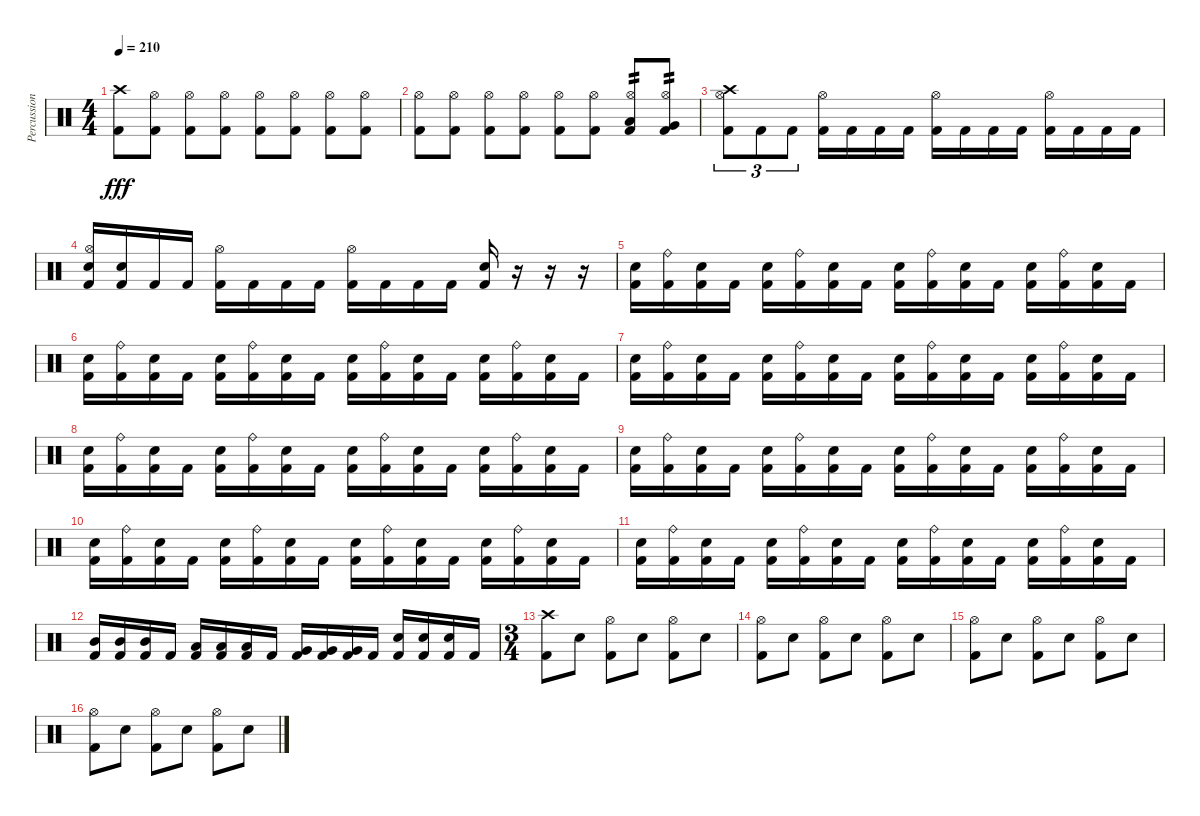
\track ("Percussion" "Percussion") {instrument percussion}
\staff {score}
\articulation defaults
\ts (4 4)
\tempo 210
\clef neutral
\ks c
("Crash high (hit)" "Kick (hit) 2").8{dy fff} ("Hi-Hat (open)" "Kick (hit) 2").8 ("Hi-Hat (open)" "Kick (hit) 2").8 ("Hi-Hat (open)" "Kick (hit) 2").8 ("Hi-Hat (open)" "Kick (hit) 2").8 ("Hi-Hat (open)" "Kick (hit) 2").8 ("Hi-Hat (open)" "Kick (hit) 2").8 ("Hi-Hat (open)" "Kick (hit) 2").8 |
("Hi-Hat (open)" "Kick (hit) 2").8 ("Hi-Hat (open)" "Kick (hit) 2").8 ("Hi-Hat (open)" "Kick (hit) 2").8 ("Hi-Hat (open)" "Kick (hit) 2").8 ("Hi-Hat (open)" "Kick (hit) 2").8 ("Hi-Hat (open)" "Kick (hit) 2").8 ("Hi-Hat (open)" "Low Tom (hit)" "Kick (hit) 2").8{tp 2} ("Hi-Hat (open)" "Very Low Tom (hit)" "Kick (hit) 2").8{tp 2} |
("Hi-Hat (open)" "Crash high (hit)" "Kick (hit) 2").8{tu (3 2)} "Kick (hit) 2".8{tu (3 2)} "Kick (hit) 2".8{tu (3 2)} ("Hi-Hat (open)" "Kick (hit) 2").16 "Kick (hit) 2".16 "Kick (hit) 2".16 "Kick (hit) 2".16 ("Hi-Hat (open)" "Kick (hit) 2").16 "Kick (hit) 2".16 "Kick (hit) 2".16 "Kick (hit) 2".16 ("Hi-Hat (open)" "Kick (hit) 2").16 "Kick (hit) 2".16 "Kick (hit) 2".16 "Kick (hit) 2".16 |
("Hi-Hat (open)" "Electric Snare (hit)" "Kick (hit) 2").16 ("Electric Snare (hit)" "Kick (hit) 2").16 "Kick (hit) 2".16 "Kick (hit) 2".16 ("Hi-Hat (open)" "Kick (hit) 2").16 "Kick (hit) 2".16 "Kick (hit) 2".16 "Kick (hit) 2".16 ("Hi-Hat (open)" "Kick (hit) 2").16 "Kick (hit) 2".16 "Kick (hit) 2".16 "Kick (hit) 2".16 ("Electric Snare (hit)" "Kick (hit) 2").16 r.16 r.16 r.16 |
("Electric Snare (hit)" "Kick (hit) 2").16 ("Ride (bell)" "Kick (hit) 2").16 ("Electric Snare (hit)" "Kick (hit) 2").16 "Kick (hit) 2".16 ("Electric Snare (hit)" "Kick (hit) 2").16 ("Ride (bell)" "Kick (hit) 2").16 ("Electric Snare (hit)" "Kick (hit) 2").16 "Kick (hit) 2".16 ("Electric Snare (hit)" "Kick (hit) 2").16 ("Ride (bell)" "Kick (hit) 2").16 ("Electric Snare (hit)" "Kick (hit) 2").16 "Kick (hit) 2".16 ("Electric Snare (hit)" "Kick (hit) 2").16 ("Ride (bell)" "Kick (hit) 2").16 ("Electric Snare (hit)" "Kick (hit) 2").16 "Kick (hit) 2".16 |
("Electric Snare (hit)" "Kick (hit) 2").16 ("Ride (bell)" "Kick (hit) 2").16 ("Electric Snare (hit)" "Kick (hit) 2").16 "Kick (hit) 2".16 ("Electric Snare (hit)" "Kick (hit) 2").16 ("Ride (bell)" "Kick (hit) 2").16 ("Electric Snare (hit)" "Kick (hit) 2").16 "Kick (hit) 2".16 ("Electric Snare (hit)" "Kick (hit) 2").16 ("Ride (bell)" "Kick (hit) 2").16 ("Electric Snare (hit)" "Kick (hit) 2").16 "Kick (hit) 2".16 ("Electric Snare (hit)" "Kick (hit) 2").16 ("Ride (bell)" "Kick (hit) 2").16 ("Electric Snare (hit)" "Kick (hit) 2").16 "Kick (hit) 2".16 |
("Electric Snare (hit)" "Kick (hit) 2").16 ("Ride (bell)" "Kick (hit) 2").16 ("Electric Snare (hit)" "Kick (hit) 2").16 "Kick (hit) 2".16 ("Electric Snare (hit)" "Kick (hit) 2").16 ("Ride (bell)" "Kick (hit) 2").16 ("Electric Snare (hit)" "Kick (hit) 2").16 "Kick (hit) 2".16 ("Electric Snare (hit)" "Kick (hit) 2").16 ("Ride (bell)" "Kick (hit) 2").16 ("Electric Snare (hit)" "Kick (hit) 2").16 "Kick (hit) 2".16 ("Electric Snare (hit)" "Kick (hit) 2").16 ("Ride (bell)" "Kick (hit) 2").16 ("Electric Snare (hit)" "Kick (hit) 2").16 "Kick (hit) 2".16 |
("Electric Snare (hit)" "Kick (hit) 2").16 ("Ride (bell)" "Kick (hit) 2").16 ("Electric Snare (hit)" "Kick (hit) 2").16 "Kick (hit) 2".16 ("Electric Snare (hit)" "Kick (hit) 2").16 ("Ride (bell)" "Kick (hit) 2").16 ("Electric Snare (hit)" "Kick (hit) 2").16 "Kick (hit) 2".16 ("Electric Snare (hit)" "Kick (hit) 2").16 ("Ride (bell)" "Kick (hit) 2").16 ("Electric Snare (hit)" "Kick (hit) 2").16 "Kick (hit) 2".16 ("Electric Snare (hit)" "Kick (hit) 2").16 ("Ride (bell)" "Kick (hit) 2").16 ("Electric Snare (hit)" "Kick (hit) 2").16 "Kick (hit) 2".16 |
("Electric Snare (hit)" "Kick (hit) 2").16 ("Ride (bell)" "Kick (hit) 2").16 ("Electric Snare (hit)" "Kick (hit) 2").16 "Kick (hit) 2".16 ("Electric Snare (hit)" "Kick (hit) 2").16 ("Ride (bell)" "Kick (hit) 2").16 ("Electric Snare (hit)" "Kick (hit) 2").16 "Kick (hit) 2".16 ("Electric Snare (hit)" "Kick (hit) 2").16 ("Ride (bell)" "Kick (hit) 2").16 ("Electric Snare (hit)" "Kick (hit) 2").16 "Kick (hit) 2".16 ("Electric Snare (hit)" "Kick (hit) 2").16 ("Ride (bell)" "Kick (hit) 2").16 ("Electric Snare (hit)" "Kick (hit) 2").16 "Kick (hit) 2".16 |
("Electric Snare (hit)" "Kick (hit) 2").16 ("Ride (bell)" "Kick (hit) 2").16 ("Electric Snare (hit)" "Kick (hit) 2").16 "Kick (hit) 2".16 ("Electric Snare (hit)" "Kick (hit) 2").16 ("Ride (bell)" "Kick (hit) 2").16 ("Electric Snare (hit)" "Kick (hit) 2").16 "Kick (hit) 2".16 ("Electric Snare (hit)" "Kick (hit) 2").16 ("Ride (bell)" "Kick (hit) 2").16 ("Electric Snare (hit)" "Kick (hit) 2").16 "Kick (hit) 2".16 ("Electric Snare (hit)" "Kick (hit) 2").16 ("Ride (bell)" "Kick (hit) 2").16 ("Electric Snare (hit)" "Kick (hit) 2").16 "Kick (hit) 2".16 |
("Electric Snare (hit)" "Kick (hit) 2").16 ("Ride (bell)" "Kick (hit) 2").16 ("Electric Snare (hit)" "Kick (hit) 2").16 "Kick (hit) 2".16 ("Electric Snare (hit)" "Kick (hit) 2").16 ("Ride (bell)" "Kick (hit) 2").16 ("Electric Snare (hit)" "Kick (hit) 2").16 "Kick (hit) 2".16 ("Electric Snare (hit)" "Kick (hit) 2").16 ("Ride (bell)" "Kick (hit) 2").16 ("Electric Snare (hit)" "Kick (hit) 2").16 "Kick (hit) 2".16 ("Electric Snare (hit)" "Kick (hit) 2").16 ("Ride (bell)" "Kick (hit) 2").16 ("Electric Snare (hit)" "Kick (hit) 2").16 "Kick (hit) 2".16 |
("Mid Tom (hit)" "Kick (hit) 2").16 ("Mid Tom (hit)" "Kick (hit) 2").16 ("Mid Tom (hit)" "Kick (hit) 2").16 "Kick (hit) 2".16 ("Low Tom (hit)" "Kick (hit) 2").16 ("Low Tom (hit)" "Kick (hit) 2").16 ("Low Tom (hit)" "Kick (hit) 2").16 "Kick (hit) 2".16 ("Very Low Tom (hit)" "Kick (hit) 2").16 ("Very Low Tom (hit)" "Kick (hit) 2").16 ("Very Low Tom (hit)" "Kick (hit) 2").16 "Kick (hit) 2".16 ("Electric Snare (hit)" "Kick (hit) 2").16 ("Electric Snare (hit)" "Kick (hit) 2").16 ("Electric Snare (hit)" "Kick (hit) 2").16 "Kick (hit) 2".16 |
\ts (3 4)
("Crash high (hit)" "Kick (hit) 2").8 "Electric Snare (hit)".8 ("Hi-Hat (open)" "Kick (hit) 2").8 "Electric Snare (hit)".8 ("Hi-Hat (open)" "Kick (hit) 2").8 "Electric Snare (hit)".8 |
("Hi-Hat (open)" "Kick (hit) 2").8 "Electric Snare (hit)".8 ("Hi-Hat (open)" "Kick (hit) 2").8 "Electric Snare (hit)".8 ("Hi-Hat (open)" "Kick (hit) 2").8 "Electric Snare (hit)".8 |
("Hi-Hat (open)" "Kick (hit) 2").8 "Electric Snare (hit)".8 ("Hi-Hat (open)" "Kick (hit) 2").8 "Electric Snare (hit)".8 ("Hi-Hat (open)" "Kick (hit) 2").8 "Electric Snare (hit)".8 |
("Hi-Hat (open)" "Kick (hit) 2").8 "Electric Snare (hit)".8 ("Hi-Hat (open)" "Kick (hit) 2").8 "Electric Snare (hit)".8 ("Hi-Hat (open)" "Kick (hit) 2").8 "Electric Snare (hit)".8
